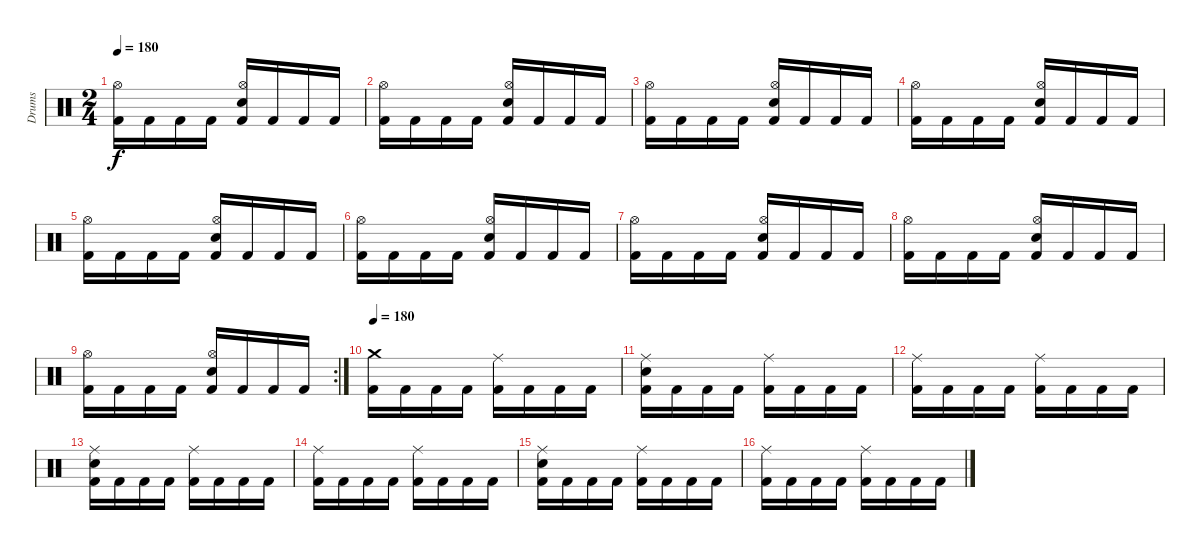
\track ("Drums" "Drums") {instrument percussion}
\staff {score}
\articulation defaults
\ts (2 4)
\tempo 180
\clef neutral
\ks c
("Kick (hit) 2" "Hi-Hat (open)").16{dy f} "Kick (hit) 2".16 "Kick (hit) 2".16 "Kick (hit) 2".16 ("Kick (hit) 2" "Electric Snare (hit)" "Hi-Hat (open)").16 "Kick (hit) 2".16 "Kick (hit) 2".16 "Kick (hit) 2".16 |
("Kick (hit) 2" "Hi-Hat (open)").16 "Kick (hit) 2".16 "Kick (hit) 2".16 "Kick (hit) 2".16 ("Kick (hit) 2" "Electric Snare (hit)" "Hi-Hat (open)").16 "Kick (hit) 2".16 "Kick (hit) 2".16 "Kick (hit) 2".16 |
("Kick (hit) 2" "Hi-Hat (open)").16 "Kick (hit) 2".16 "Kick (hit) 2".16 "Kick (hit) 2".16 ("Kick (hit) 2" "Electric Snare (hit)" "Hi-Hat (open)").16 "Kick (hit) 2".16 "Kick (hit) 2".16 "Kick (hit) 2".16 |
("Kick (hit) 2" "Hi-Hat (open)").16 "Kick (hit) 2".16 "Kick (hit) 2".16 "Kick (hit) 2".16 ("Kick (hit) 2" "Electric Snare (hit)" "Hi-Hat (open)").16 "Kick (hit) 2".16 "Kick (hit) 2".16 "Kick (hit) 2".16 |
("Kick (hit) 2" "Hi-Hat (open)").16 "Kick (hit) 2".16 "Kick (hit) 2".16 "Kick (hit) 2".16 ("Kick (hit) 2" "Electric Snare (hit)" "Hi-Hat (open)").16 "Kick (hit) 2".16 "Kick (hit) 2".16 "Kick (hit) 2".16 |
("Kick (hit) 2" "Hi-Hat (open)").16 "Kick (hit) 2".16 "Kick (hit) 2".16 "Kick (hit) 2".16 ("Kick (hit) 2" "Electric Snare (hit)" "Hi-Hat (open)").16 "Kick (hit) 2".16 "Kick (hit) 2".16 "Kick (hit) 2".16 |
("Kick (hit) 2" "Hi-Hat (open)").16 "Kick (hit) 2".16 "Kick (hit) 2".16 "Kick (hit) 2".16 ("Kick (hit) 2" "Electric Snare (hit)" "Hi-Hat (open)").16 "Kick (hit) 2".16 "Kick (hit) 2".16 "Kick (hit) 2".16 |
("Kick (hit) 2" "Hi-Hat (open)").16 "Kick (hit) 2".16 "Kick (hit) 2".16 "Kick (hit) 2".16 ("Kick (hit) 2" "Electric Snare (hit)" "Hi-Hat (open)").16 "Kick (hit) 2".16 "Kick (hit) 2".16 "Kick (hit) 2".16 |
\rc 2
("Kick (hit) 2" "Hi-Hat (open)").16 "Kick (hit) 2".16 "Kick (hit) 2".16 "Kick (hit) 2".16 ("Kick (hit) 2" "Electric Snare (hit)" "Hi-Hat (open)").16 "Kick (hit) 2".16 "Kick (hit) 2".16 "Kick (hit) 2".16 |
\tempo 180
("Kick (hit) 2" "Crash medium (hit)").16 "Kick (hit) 2".16 "Kick (hit) 2".16 "Kick (hit) 2".16 ("Kick (hit) 2" "Ride (middle)").16 "Kick (hit) 2".16 "Kick (hit) 2".16 "Kick (hit) 2".16 |
("Kick (hit) 2" "Electric Snare (hit)" "Ride (middle)").16 "Kick (hit) 2".16 "Kick (hit) 2".16 "Kick (hit) 2".16 ("Kick (hit) 2" "Ride (middle)").16 "Kick (hit) 2".16 "Kick (hit) 2".16 "Kick (hit) 2".16 |
("Kick (hit) 2" "Ride (middle)").16 "Kick (hit) 2".16 "Kick (hit) 2".16 "Kick (hit) 2".16 ("Kick (hit) 2" "Ride (middle)").16 "Kick (hit) 2".16 "Kick (hit) 2".16 "Kick (hit) 2".16 |
("Kick (hit) 2" "Electric Snare (hit)" "Ride (middle)").16 "Kick (hit) 2".16 "Kick (hit) 2".16 "Kick (hit) 2".16 ("Kick (hit) 2" "Ride (middle)").16 "Kick (hit) 2".16 "Kick (hit) 2".16 "Kick (hit) 2".16 |
("Kick (hit) 2" "Ride (middle)").16 "Kick (hit) 2".16 "Kick (hit) 2".16 "Kick (hit) 2".16 ("Kick (hit) 2" "Ride (middle)").16 "Kick (hit) 2".16 "Kick (hit) 2".16 "Kick (hit) 2".16 |
("Kick (hit) 2" "Electric Snare (hit)" "Ride (middle)").16 "Kick (hit) 2".16 "Kick (hit) 2".16 "Kick (hit) 2".16 ("Kick (hit) 2" "Ride (middle)").16 "Kick (hit) 2".16 "Kick (hit) 2".16 "Kick (hit) 2".16 |
("Kick (hit) 2" "Ride (middle)").16 "Kick (hit) 2".16 "Kick (hit) 2".16 "Kick (hit) 2".16 ("Kick (hit) 2" "Ride (middle)").16 "Kick (hit) 2".16 "Kick (hit) 2".16 "Kick (hit) 2".16
